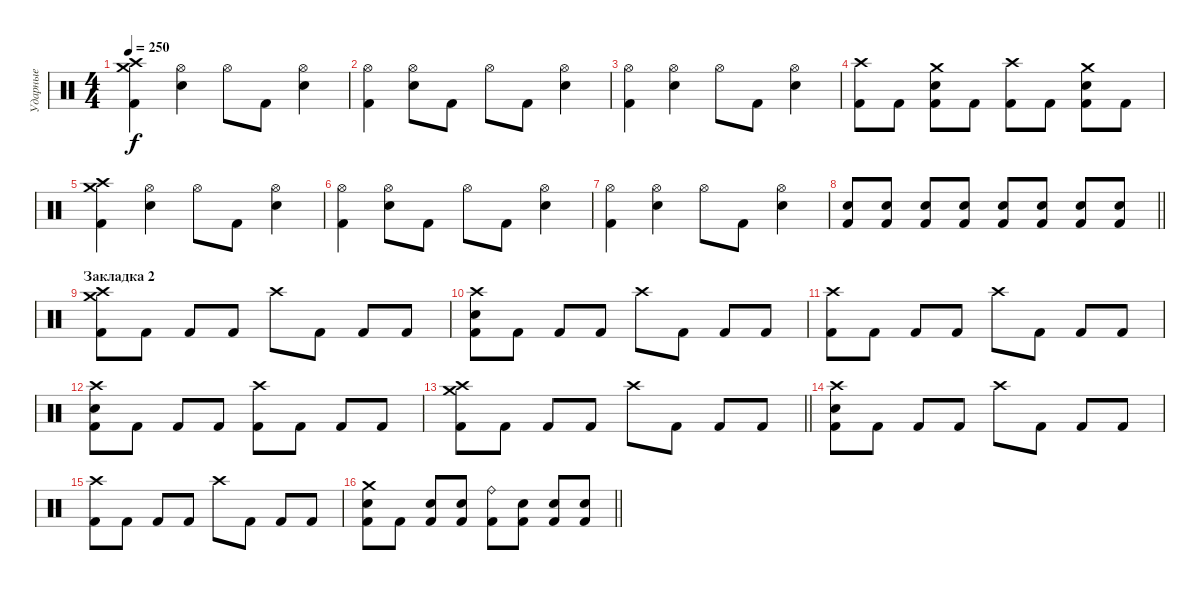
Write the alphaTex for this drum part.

\track ("Ударные" "Ударные") {instrument percussion}
\staff {score}
\articulation defaults
\ts (4 4)
\tempo 250
\clef neutral
\ks c
("Crash medium (hit)" "Crash high (hit)" "Kick (hit) 2").4{dy f} ("Hi-Hat (open)" "Electric Snare (hit)").4 "Hi-Hat (open)".8 "Kick (hit) 2".8 ("Hi-Hat (open)" "Electric Snare (hit)").4 |
("Hi-Hat (open)" "Kick (hit) 2").4 ("Hi-Hat (open)" "Electric Snare (hit)").8 "Kick (hit) 2".8 "Hi-Hat (open)".8 "Kick (hit) 2".8 ("Hi-Hat (open)" "Electric Snare (hit)").4 |
("Hi-Hat (open)" "Kick (hit) 2").4 ("Hi-Hat (open)" "Electric Snare (hit)").4 "Hi-Hat (open)".8 "Kick (hit) 2".8 ("Hi-Hat (open)" "Electric Snare (hit)").4 |
("Crash high (hit)" "Kick (hit) 2").8 "Kick (hit) 2".8 ("Crash medium (hit)" "Electric Snare (hit)" "Kick (hit) 2").8 "Kick (hit) 2".8 ("Crash high (hit)" "Kick (hit) 2").8 "Kick (hit) 2".8 ("Crash medium (hit)" "Electric Snare (hit)" "Kick (hit) 2").8 "Kick (hit) 2".8 |
("Crash medium (hit)" "Crash high (hit)" "Kick (hit) 2").4 ("Hi-Hat (open)" "Electric Snare (hit)").4 "Hi-Hat (open)".8 "Kick (hit) 2".8 ("Hi-Hat (open)" "Electric Snare (hit)").4 |
("Hi-Hat (open)" "Kick (hit) 2").4 ("Hi-Hat (open)" "Electric Snare (hit)").8 "Kick (hit) 2".8 "Hi-Hat (open)".8 "Kick (hit) 2".8 ("Hi-Hat (open)" "Electric Snare (hit)").4 |
("Hi-Hat (open)" "Kick (hit) 2").4 ("Hi-Hat (open)" "Electric Snare (hit)").4 "Hi-Hat (open)".8 "Kick (hit) 2".8 ("Hi-Hat (open)" "Electric Snare (hit)").4 |
\barLineRight lightlight
("Electric Snare (hit)" "Kick (hit) 2").8 ("Electric Snare (hit)" "Kick (hit) 2").8 ("Electric Snare (hit)" "Kick (hit) 2").8 ("Electric Snare (hit)" "Kick (hit) 2").8 ("Electric Snare (hit)" "Kick (hit) 2").8 ("Electric Snare (hit)" "Kick (hit) 2").8 ("Electric Snare (hit)" "Kick (hit) 2").8 ("Electric Snare (hit)" "Kick (hit) 2").8 |
\section ("" "Закладка 2")
("Crash medium (hit)" "Crash high (hit)" "Kick (hit) 2").8 "Kick (hit) 2".8 "Kick (hit) 2".8 "Kick (hit) 2".8 "Crash high (hit)".8 "Kick (hit) 2".8 "Kick (hit) 2".8 "Kick (hit) 2".8 |
("Crash high (hit)" "Electric Snare (hit)" "Kick (hit) 2").8 "Kick (hit) 2".8 "Kick (hit) 2".8 "Kick (hit) 2".8 "Crash high (hit)".8 "Kick (hit) 2".8 "Kick (hit) 2".8 "Kick (hit) 2".8 |
("Crash high (hit)" "Kick (hit) 2").8 "Kick (hit) 2".8 "Kick (hit) 2".8 "Kick (hit) 2".8 "Crash high (hit)".8 "Kick (hit) 2".8 "Kick (hit) 2".8 "Kick (hit) 2".8 |
("Crash high (hit)" "Electric Snare (hit)" "Kick (hit) 2").8 "Kick (hit) 2".8 "Kick (hit) 2".8 "Kick (hit) 2".8 ("Crash high (hit)" "Kick (hit) 2").8 "Kick (hit) 2".8 "Kick (hit) 2".8 "Kick (hit) 2".8 |
\barLineRight lightlight
("Crash medium (hit)" "Crash high (hit)" "Kick (hit) 2").8 "Kick (hit) 2".8 "Kick (hit) 2".8 "Kick (hit) 2".8 "Crash high (hit)".8 "Kick (hit) 2".8 "Kick (hit) 2".8 "Kick (hit) 2".8 |
("Crash high (hit)" "Electric Snare (hit)" "Kick (hit) 2").8 "Kick (hit) 2".8 "Kick (hit) 2".8 "Kick (hit) 2".8 "Crash high (hit)".8 "Kick (hit) 2".8 "Kick (hit) 2".8 "Kick (hit) 2".8 |
("Crash high (hit)" "Kick (hit) 2").8 "Kick (hit) 2".8 "Kick (hit) 2".8 "Kick (hit) 2".8 "Crash high (hit)".8 "Kick (hit) 2".8 "Kick (hit) 2".8 "Kick (hit) 2".8 |
\barLineRight lightlight
("Crash medium (hit)" "Electric Snare (hit)" "Kick (hit) 2").8 "Kick (hit) 2".8 ("Electric Snare (hit)" "Kick (hit) 2").8 ("Electric Snare (hit)" "Kick (hit) 2").8 ("Ride (bell)" "Kick (hit) 2").8 ("Electric Snare (hit)" "Kick (hit) 2").8 ("Electric Snare (hit)" "Kick (hit) 2").8 ("Electric Snare (hit)" "Kick (hit) 2").8
